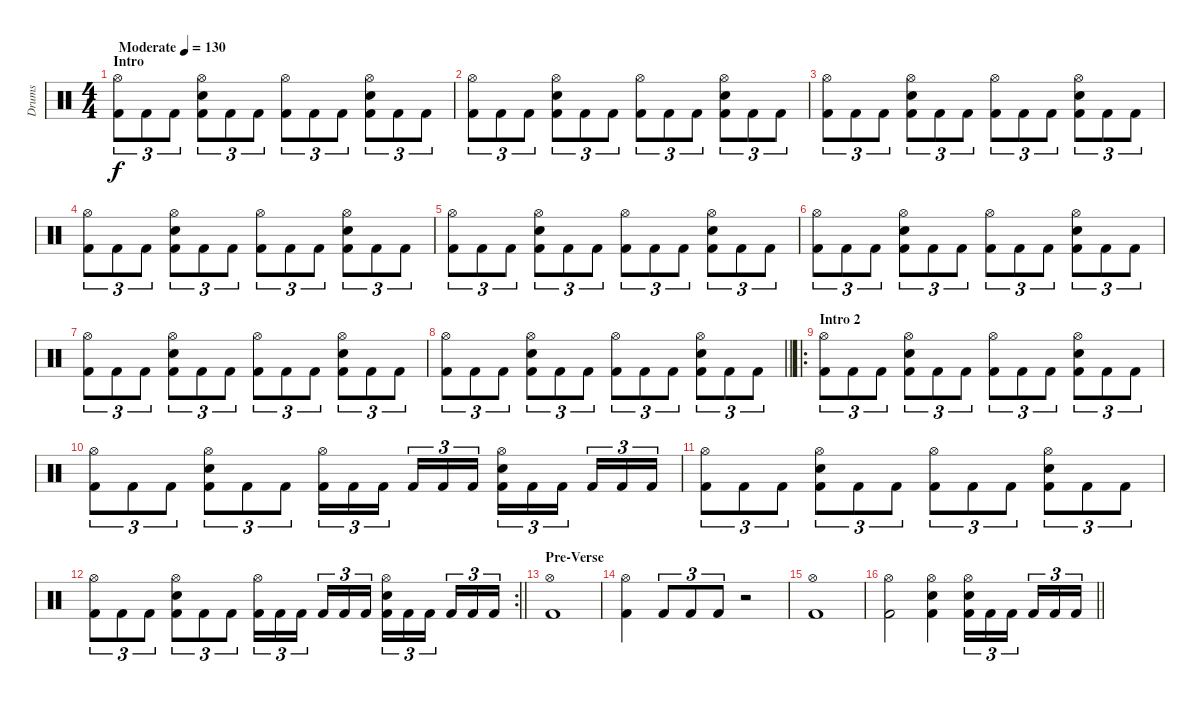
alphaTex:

\track ("Drums" "Drums") {instrument percussion}
\staff {score}
\articulation defaults
\ts (4 4)
\section ("" "Intro")
\tempo (130 "Moderate")
\clef neutral
\ks c
("Hi-Hat (open)" "Kick (hit) 2").8{tu (3 2) dy f} "Kick (hit) 2".8{tu (3 2)} "Kick (hit) 2".8{tu (3 2)} ("Hi-Hat (open)" "Snare (hit) 2" "Kick (hit) 2").8{tu (3 2)} "Kick (hit) 2".8{tu (3 2)} "Kick (hit) 2".8{tu (3 2)} ("Hi-Hat (open)" "Kick (hit) 2").8{tu (3 2)} "Kick (hit) 2".8{tu (3 2)} "Kick (hit) 2".8{tu (3 2)} ("Hi-Hat (open)" "Snare (hit) 2" "Kick (hit) 2").8{tu (3 2)} "Kick (hit) 2".8{tu (3 2)} "Kick (hit) 2".8{tu (3 2)} |
("Hi-Hat (open)" "Kick (hit) 2").8{tu (3 2)} "Kick (hit) 2".8{tu (3 2)} "Kick (hit) 2".8{tu (3 2)} ("Hi-Hat (open)" "Snare (hit) 2" "Kick (hit) 2").8{tu (3 2)} "Kick (hit) 2".8{tu (3 2)} "Kick (hit) 2".8{tu (3 2)} ("Hi-Hat (open)" "Kick (hit) 2").8{tu (3 2)} "Kick (hit) 2".8{tu (3 2)} "Kick (hit) 2".8{tu (3 2)} ("Hi-Hat (open)" "Snare (hit) 2" "Kick (hit) 2").8{tu (3 2)} "Kick (hit) 2".8{tu (3 2)} "Kick (hit) 2".8{tu (3 2)} |
("Hi-Hat (open)" "Kick (hit) 2").8{tu (3 2)} "Kick (hit) 2".8{tu (3 2)} "Kick (hit) 2".8{tu (3 2)} ("Hi-Hat (open)" "Snare (hit) 2" "Kick (hit) 2").8{tu (3 2)} "Kick (hit) 2".8{tu (3 2)} "Kick (hit) 2".8{tu (3 2)} ("Hi-Hat (open)" "Kick (hit) 2").8{tu (3 2)} "Kick (hit) 2".8{tu (3 2)} "Kick (hit) 2".8{tu (3 2)} ("Hi-Hat (open)" "Snare (hit) 2" "Kick (hit) 2").8{tu (3 2)} "Kick (hit) 2".8{tu (3 2)} "Kick (hit) 2".8{tu (3 2)} |
("Hi-Hat (open)" "Kick (hit) 2").8{tu (3 2)} "Kick (hit) 2".8{tu (3 2)} "Kick (hit) 2".8{tu (3 2)} ("Hi-Hat (open)" "Snare (hit) 2" "Kick (hit) 2").8{tu (3 2)} "Kick (hit) 2".8{tu (3 2)} "Kick (hit) 2".8{tu (3 2)} ("Hi-Hat (open)" "Kick (hit) 2").8{tu (3 2)} "Kick (hit) 2".8{tu (3 2)} "Kick (hit) 2".8{tu (3 2)} ("Hi-Hat (open)" "Snare (hit) 2" "Kick (hit) 2").8{tu (3 2)} "Kick (hit) 2".8{tu (3 2)} "Kick (hit) 2".8{tu (3 2)} |
("Hi-Hat (open)" "Kick (hit) 2").8{tu (3 2)} "Kick (hit) 2".8{tu (3 2)} "Kick (hit) 2".8{tu (3 2)} ("Hi-Hat (open)" "Snare (hit) 2" "Kick (hit) 2").8{tu (3 2)} "Kick (hit) 2".8{tu (3 2)} "Kick (hit) 2".8{tu (3 2)} ("Hi-Hat (open)" "Kick (hit) 2").8{tu (3 2)} "Kick (hit) 2".8{tu (3 2)} "Kick (hit) 2".8{tu (3 2)} ("Hi-Hat (open)" "Snare (hit) 2" "Kick (hit) 2").8{tu (3 2)} "Kick (hit) 2".8{tu (3 2)} "Kick (hit) 2".8{tu (3 2)} |
("Hi-Hat (open)" "Kick (hit) 2").8{tu (3 2)} "Kick (hit) 2".8{tu (3 2)} "Kick (hit) 2".8{tu (3 2)} ("Hi-Hat (open)" "Snare (hit) 2" "Kick (hit) 2").8{tu (3 2)} "Kick (hit) 2".8{tu (3 2)} "Kick (hit) 2".8{tu (3 2)} ("Hi-Hat (open)" "Kick (hit) 2").8{tu (3 2)} "Kick (hit) 2".8{tu (3 2)} "Kick (hit) 2".8{tu (3 2)} ("Hi-Hat (open)" "Snare (hit) 2" "Kick (hit) 2").8{tu (3 2)} "Kick (hit) 2".8{tu (3 2)} "Kick (hit) 2".8{tu (3 2)} |
("Hi-Hat (open)" "Kick (hit) 2").8{tu (3 2)} "Kick (hit) 2".8{tu (3 2)} "Kick (hit) 2".8{tu (3 2)} ("Hi-Hat (open)" "Snare (hit) 2" "Kick (hit) 2").8{tu (3 2)} "Kick (hit) 2".8{tu (3 2)} "Kick (hit) 2".8{tu (3 2)} ("Hi-Hat (open)" "Kick (hit) 2").8{tu (3 2)} "Kick (hit) 2".8{tu (3 2)} "Kick (hit) 2".8{tu (3 2)} ("Hi-Hat (open)" "Snare (hit) 2" "Kick (hit) 2").8{tu (3 2)} "Kick (hit) 2".8{tu (3 2)} "Kick (hit) 2".8{tu (3 2)} |
\barLineRight lightlight
("Hi-Hat (open)" "Kick (hit) 2").8{tu (3 2)} "Kick (hit) 2".8{tu (3 2)} "Kick (hit) 2".8{tu (3 2)} ("Hi-Hat (open)" "Snare (hit) 2" "Kick (hit) 2").8{tu (3 2)} "Kick (hit) 2".8{tu (3 2)} "Kick (hit) 2".8{tu (3 2)} ("Hi-Hat (open)" "Kick (hit) 2").8{tu (3 2)} "Kick (hit) 2".8{tu (3 2)} "Kick (hit) 2".8{tu (3 2)} ("Hi-Hat (open)" "Snare (hit) 2" "Kick (hit) 2").8{tu (3 2)} "Kick (hit) 2".8{tu (3 2)} "Kick (hit) 2".8{tu (3 2)} |
\ro
\section ("" "Intro 2")
("Hi-Hat (open)" "Kick (hit) 2").8{tu (3 2)} "Kick (hit) 2".8{tu (3 2)} "Kick (hit) 2".8{tu (3 2)} ("Hi-Hat (open)" "Snare (hit) 2" "Kick (hit) 2").8{tu (3 2)} "Kick (hit) 2".8{tu (3 2)} "Kick (hit) 2".8{tu (3 2)} ("Hi-Hat (open)" "Kick (hit) 2").8{tu (3 2)} "Kick (hit) 2".8{tu (3 2)} "Kick (hit) 2".8{tu (3 2)} ("Hi-Hat (open)" "Snare (hit) 2" "Kick (hit) 2").8{tu (3 2)} "Kick (hit) 2".8{tu (3 2)} "Kick (hit) 2".8{tu (3 2)} |
("Hi-Hat (open)" "Kick (hit) 2").8{tu (3 2)} "Kick (hit) 2".8{tu (3 2)} "Kick (hit) 2".8{tu (3 2)} ("Hi-Hat (open)" "Snare (hit) 2" "Kick (hit) 2").8{tu (3 2)} "Kick (hit) 2".8{tu (3 2)} "Kick (hit) 2".8{tu (3 2)} ("Hi-Hat (open)" "Kick (hit) 2").16{tu (3 2)} "Kick (hit) 2".16{tu (3 2)} "Kick (hit) 2".16{tu (3 2) beam splitsecondary} "Kick (hit) 2".16{tu (3 2)} "Kick (hit) 2".16{tu (3 2)} "Kick (hit) 2".16{tu (3 2)} ("Hi-Hat (open)" "Snare (hit) 2" "Kick (hit) 2").16{tu (3 2)} "Kick (hit) 2".16{tu (3 2)} "Kick (hit) 2".16{tu (3 2) beam splitsecondary} "Kick (hit) 2".16{tu (3 2)} "Kick (hit) 2".16{tu (3 2)} "Kick (hit) 2".16{tu (3 2)} |
("Hi-Hat (open)" "Kick (hit) 2").8{tu (3 2)} "Kick (hit) 2".8{tu (3 2)} "Kick (hit) 2".8{tu (3 2)} ("Hi-Hat (open)" "Snare (hit) 2" "Kick (hit) 2").8{tu (3 2)} "Kick (hit) 2".8{tu (3 2)} "Kick (hit) 2".8{tu (3 2)} ("Hi-Hat (open)" "Kick (hit) 2").8{tu (3 2)} "Kick (hit) 2".8{tu (3 2)} "Kick (hit) 2".8{tu (3 2)} ("Hi-Hat (open)" "Snare (hit) 2" "Kick (hit) 2").8{tu (3 2)} "Kick (hit) 2".8{tu (3 2)} "Kick (hit) 2".8{tu (3 2)} |
\rc 2
\barLineRight lightlight
("Hi-Hat (open)" "Kick (hit) 2").8{tu (3 2)} "Kick (hit) 2".8{tu (3 2)} "Kick (hit) 2".8{tu (3 2)} ("Hi-Hat (open)" "Snare (hit) 2" "Kick (hit) 2").8{tu (3 2)} "Kick (hit) 2".8{tu (3 2)} "Kick (hit) 2".8{tu (3 2)} ("Hi-Hat (open)" "Kick (hit) 2").16{tu (3 2)} "Kick (hit) 2".16{tu (3 2)} "Kick (hit) 2".16{tu (3 2) beam splitsecondary} "Kick (hit) 2".16{tu (3 2)} "Kick (hit) 2".16{tu (3 2)} "Kick (hit) 2".16{tu (3 2)} ("Hi-Hat (open)" "Snare (hit) 2" "Kick (hit) 2").16{tu (3 2)} "Kick (hit) 2".16{tu (3 2)} "Kick (hit) 2".16{tu (3 2) beam splitsecondary} "Kick (hit) 2".16{tu (3 2)} "Kick (hit) 2".16{tu (3 2)} "Kick (hit) 2".16{tu (3 2)} |
\section ("" "Pre-Verse")
("Hi-Hat (open)" "Kick (hit) 2").1 |
("Hi-Hat (open)" "Kick (hit) 2").4 "Kick (hit) 2".8{tu (3 2)} "Kick (hit) 2".8{tu (3 2)} "Kick (hit) 2".8{tu (3 2)} r.2 |
("Hi-Hat (open)" "Kick (hit) 2").1 |
\barLineRight lightlight
("Hi-Hat (open)" "Kick (hit) 2").2 ("Hi-Hat (open)" "Snare (hit) 2" "Kick (hit) 2").4 ("Hi-Hat (open)" "Snare (hit) 2" "Kick (hit) 2").16{tu (3 2)} "Kick (hit) 2".16{tu (3 2)} "Kick (hit) 2".16{tu (3 2) beam splitsecondary} "Kick (hit) 2".16{tu (3 2)} "Kick (hit) 2".16{tu (3 2)} "Kick (hit) 2".16{tu (3 2)}
